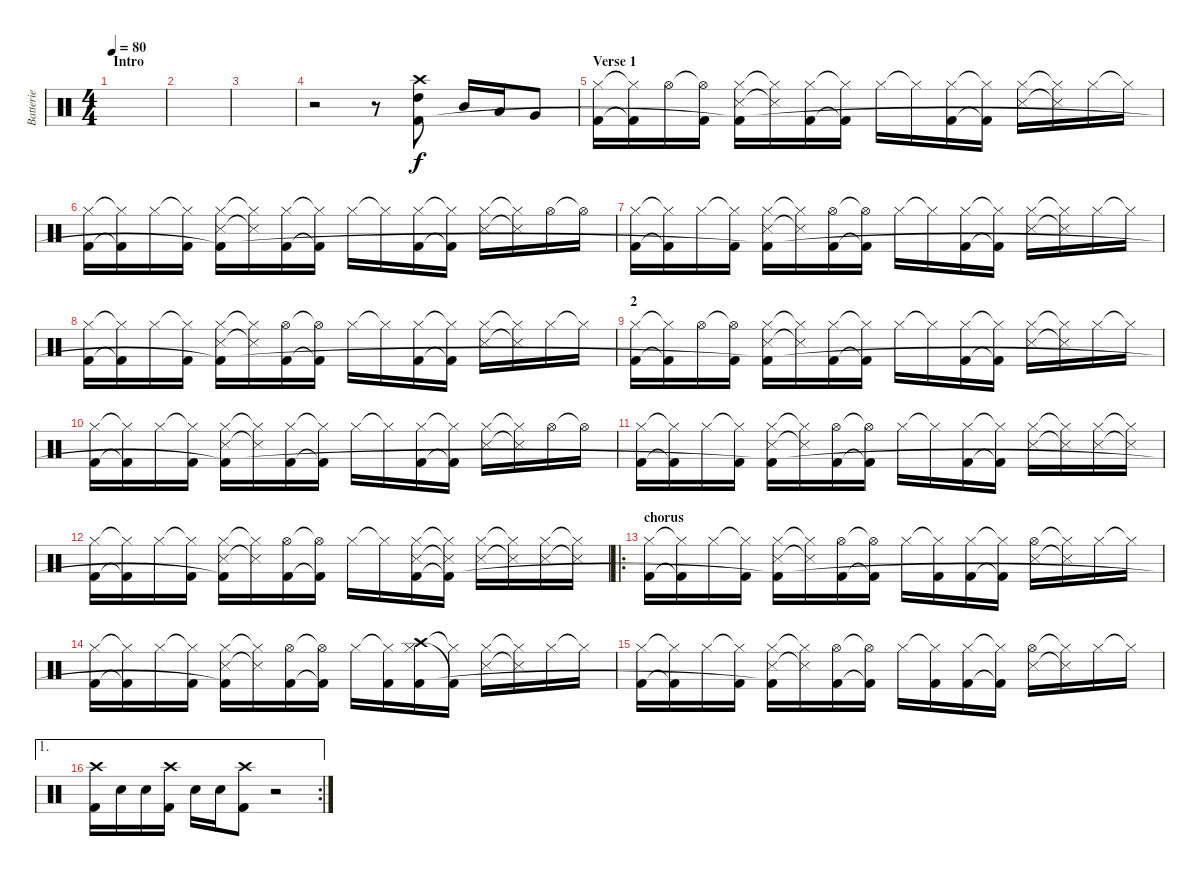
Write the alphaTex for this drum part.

\track ("Batterie" "Batterie") {instrument percussion}
\staff {score}
\articulation defaults
\ts (4 4)
\section ("" "Intro")
\tempo 80
\clef neutral
\ks c
|
|
|
r.2 r.8 ("Crash high (hit)" "High Tom (hit)" "Kick (hit) 2").8 "Mid Tom (hit)".16 "Low Tom (hit)".16 "Very Low Tom (hit)".8 |
\section ("" "Verse 1")
("Hi-Hat (closed)" "Kick (hit) 2").16 ("Hi-Hat (closed)"{t} "Kick (hit) 2"{t}).16 "Hi-Hat (open)".16 ("Hi-Hat (open)"{t} "Kick (hit) 2").16 ("Hi-Hat (closed)" "Snare (side stick) 3" "Kick (hit) 2"{t}).16 ("Hi-Hat (closed)"{t} "Snare (side stick) 3"{t}).16 ("Hi-Hat (closed)" "Kick (hit) 2").16 ("Hi-Hat (closed)"{t} "Kick (hit) 2"{t}).16 "Hi-Hat (closed)".16 "Hi-Hat (closed)"{t}.16 ("Hi-Hat (closed)" "Kick (hit) 2").16 ("Hi-Hat (closed)"{t} "Kick (hit) 2"{t}).16 ("Hi-Hat (closed)" "Snare (side stick) 3").16 ("Hi-Hat (closed)"{t} "Snare (side stick) 3"{t}).16 "Hi-Hat (closed)".16 "Hi-Hat (closed)"{t}.16 |
("Hi-Hat (closed)" "Kick (hit) 2").16 ("Hi-Hat (closed)"{t} "Kick (hit) 2"{t}).16 "Hi-Hat (closed)".16 ("Hi-Hat (closed)"{t} "Kick (hit) 2").16 ("Hi-Hat (closed)" "Snare (side stick) 3" "Kick (hit) 2"{t}).16 ("Hi-Hat (closed)"{t} "Snare (side stick) 3"{t}).16 ("Hi-Hat (closed)" "Kick (hit) 2").16 ("Hi-Hat (closed)"{t} "Kick (hit) 2"{t}).16 "Hi-Hat (closed)".16 "Hi-Hat (closed)"{t}.16 ("Hi-Hat (closed)" "Kick (hit) 2").16 ("Hi-Hat (closed)"{t} "Kick (hit) 2"{t}).16 ("Hi-Hat (closed)" "Snare (side stick) 3").16 ("Hi-Hat (closed)"{t} "Snare (side stick) 3"{t}).16 "Hi-Hat (open)".16 "Hi-Hat (open)"{t}.16 |
("Hi-Hat (closed)" "Kick (hit) 2").16 ("Hi-Hat (closed)"{t} "Kick (hit) 2"{t}).16 "Hi-Hat (closed)".16 ("Hi-Hat (closed)"{t} "Kick (hit) 2").16 ("Hi-Hat (closed)" "Snare (side stick) 3" "Kick (hit) 2"{t}).16 ("Hi-Hat (closed)"{t} "Snare (side stick) 3"{t}).16 ("Hi-Hat (open)" "Kick (hit) 2").16 ("Hi-Hat (open)"{t} "Kick (hit) 2"{t}).16 "Hi-Hat (closed)".16 "Hi-Hat (closed)"{t}.16 ("Hi-Hat (closed)" "Kick (hit) 2").16 ("Hi-Hat (closed)"{t} "Kick (hit) 2"{t}).16 ("Hi-Hat (closed)" "Snare (side stick) 3").16 ("Hi-Hat (closed)"{t} "Snare (side stick) 3"{t}).16 "Hi-Hat (closed)".16 "Hi-Hat (closed)"{t}.16 |
("Hi-Hat (closed)" "Kick (hit) 2").16 ("Hi-Hat (closed)"{t} "Kick (hit) 2"{t}).16 "Hi-Hat (closed)".16 ("Hi-Hat (closed)"{t} "Kick (hit) 2").16 ("Hi-Hat (closed)" "Snare (side stick) 3" "Kick (hit) 2"{t}).16 ("Hi-Hat (closed)"{t} "Snare (side stick) 3"{t}).16 ("Hi-Hat (open)" "Kick (hit) 2").16 ("Hi-Hat (open)"{t} "Kick (hit) 2"{t}).16 "Hi-Hat (closed)".16 "Hi-Hat (closed)"{t}.16 ("Hi-Hat (closed)" "Kick (hit) 2").16 ("Hi-Hat (closed)"{t} "Kick (hit) 2"{t}).16 ("Hi-Hat (closed)" "Snare (side stick) 3").16 ("Hi-Hat (closed)"{t} "Snare (side stick) 3"{t}).16 "Hi-Hat (closed)".16 "Hi-Hat (closed)"{t}.16 |
\section ("" "2")
("Hi-Hat (closed)" "Kick (hit) 2").16 ("Hi-Hat (closed)"{t} "Kick (hit) 2"{t}).16 "Hi-Hat (open)".16 ("Hi-Hat (open)"{t} "Kick (hit) 2").16 ("Hi-Hat (closed)" "Snare (side stick) 3" "Kick (hit) 2"{t}).16 ("Hi-Hat (closed)"{t} "Snare (side stick) 3"{t}).16 ("Hi-Hat (closed)" "Kick (hit) 2").16 ("Hi-Hat (closed)"{t} "Kick (hit) 2"{t}).16 "Hi-Hat (closed)".16 "Hi-Hat (closed)"{t}.16 ("Hi-Hat (closed)" "Kick (hit) 2").16 ("Hi-Hat (closed)"{t} "Kick (hit) 2"{t}).16 ("Hi-Hat (closed)" "Snare (side stick) 3").16 ("Hi-Hat (closed)"{t} "Snare (side stick) 3"{t}).16 "Hi-Hat (closed)".16 "Hi-Hat (closed)"{t}.16 |
("Hi-Hat (closed)" "Kick (hit) 2").16 ("Hi-Hat (closed)"{t} "Kick (hit) 2"{t}).16 "Hi-Hat (closed)".16 ("Hi-Hat (closed)"{t} "Kick (hit) 2").16 ("Hi-Hat (closed)" "Snare (side stick) 3" "Kick (hit) 2"{t}).16 ("Hi-Hat (closed)"{t} "Snare (side stick) 3"{t}).16 ("Hi-Hat (closed)" "Kick (hit) 2").16 ("Hi-Hat (closed)"{t} "Kick (hit) 2"{t}).16 "Hi-Hat (closed)".16 "Hi-Hat (closed)"{t}.16 ("Hi-Hat (closed)" "Kick (hit) 2").16 ("Hi-Hat (closed)"{t} "Kick (hit) 2"{t}).16 ("Hi-Hat (closed)" "Snare (side stick) 3").16 ("Hi-Hat (closed)"{t} "Snare (side stick) 3"{t}).16 "Hi-Hat (open)".16 "Hi-Hat (open)"{t}.16 |
("Hi-Hat (closed)" "Kick (hit) 2").16 ("Hi-Hat (closed)"{t} "Kick (hit) 2"{t}).16 "Hi-Hat (closed)".16 ("Hi-Hat (closed)"{t} "Kick (hit) 2").16 ("Hi-Hat (closed)" "Snare (side stick) 3" "Kick (hit) 2"{t}).16 ("Hi-Hat (closed)"{t} "Snare (side stick) 3"{t}).16 ("Hi-Hat (open)" "Kick (hit) 2").16 ("Hi-Hat (open)"{t} "Kick (hit) 2"{t}).16 "Hi-Hat (closed)".16 "Hi-Hat (closed)"{t}.16 ("Hi-Hat (closed)" "Kick (hit) 2").16 ("Hi-Hat (closed)"{t} "Kick (hit) 2"{t}).16 ("Hi-Hat (closed)" "Snare (side stick) 3").16 ("Hi-Hat (closed)"{t} "Snare (side stick) 3"{t}).16 ("Hi-Hat (closed)" "Snare (side stick) 3").16 ("Hi-Hat (closed)"{t} "Snare (side stick) 3"{t}).16 |
("Hi-Hat (closed)" "Kick (hit) 2").16 ("Hi-Hat (closed)"{t} "Kick (hit) 2"{t}).16 "Hi-Hat (closed)".16 ("Hi-Hat (closed)"{t} "Kick (hit) 2").16 ("Hi-Hat (closed)" "Snare (side stick) 3" "Kick (hit) 2"{t}).16 ("Hi-Hat (closed)"{t} "Snare (side stick) 3"{t}).16 ("Hi-Hat (open)" "Kick (hit) 2").16 ("Hi-Hat (open)"{t} "Kick (hit) 2"{t}).16 "Hi-Hat (closed)".16 "Hi-Hat (closed)"{t}.16 ("Hi-Hat (closed)" "Snare (side stick) 3" "Kick (hit) 2").16 ("Hi-Hat (closed)"{t} "Snare (side stick) 3"{t} "Kick (hit) 2"{t}).16 ("Hi-Hat (closed)" "Snare (side stick) 3").16 ("Hi-Hat (closed)"{t} "Snare (side stick) 3"{t}).16 ("Hi-Hat (closed)" "Snare (side stick) 3").16 ("Hi-Hat (closed)"{t} "Snare (side stick) 3"{t}).16 |
\ro
\section ("" "chorus")
("Hi-Hat (closed)" "Kick (hit) 2").16 ("Hi-Hat (closed)"{t} "Kick (hit) 2"{t}).16 "Hi-Hat (closed)".16 ("Hi-Hat (closed)"{t} "Kick (hit) 2").16 ("Hi-Hat (closed)" "Snare (side stick) 3" "Kick (hit) 2"{t}).16 ("Hi-Hat (closed)"{t} "Snare (side stick) 3"{t}).16 ("Hi-Hat (open)" "Kick (hit) 2").16 ("Hi-Hat (open)"{t} "Kick (hit) 2"{t}).16 "Hi-Hat (closed)".16 ("Hi-Hat (closed)"{t} "Kick (hit) 2").16 ("Hi-Hat (closed)" "Kick (hit) 2").16 ("Hi-Hat (closed)"{t} "Kick (hit) 2"{t}).16 ("Hi-Hat (open)" "Snare (side stick) 3").16 ("Hi-Hat (closed)"{t} "Snare (side stick) 3"{t}).16 "Hi-Hat (closed)".16 "Hi-Hat (closed)"{t}.16 |
("Hi-Hat (closed)" "Kick (hit) 2").16 ("Hi-Hat (closed)"{t} "Kick (hit) 2"{t}).16 "Hi-Hat (closed)".16 ("Hi-Hat (closed)"{t} "Kick (hit) 2").16 ("Hi-Hat (closed)" "Snare (side stick) 3" "Kick (hit) 2"{t}).16 ("Hi-Hat (closed)"{t} "Snare (side stick) 3"{t}).16 ("Hi-Hat (open)" "Kick (hit) 2").16 ("Hi-Hat (open)"{t} "Kick (hit) 2"{t}).16 "Hi-Hat (closed)".16 ("Hi-Hat (closed)"{t} "Kick (hit) 2").16 ("Crash high (hit)" "Hi-Hat (closed)" "Kick (hit) 2").16 ("Hi-Hat (closed)"{t} "Kick (hit) 2"{t}).16 ("Hi-Hat (closed)" "Snare (side stick) 3").16 ("Hi-Hat (closed)"{t} "Snare (side stick) 3"{t}).16 "Hi-Hat (closed)".16 "Hi-Hat (closed)"{t}.16 |
("Hi-Hat (closed)" "Kick (hit) 2").16 ("Hi-Hat (closed)"{t} "Kick (hit) 2"{t}).16 "Hi-Hat (closed)".16 ("Hi-Hat (closed)"{t} "Kick (hit) 2").16 ("Hi-Hat (closed)" "Snare (side stick) 3" "Kick (hit) 2"{t}).16 ("Hi-Hat (closed)"{t} "Snare (side stick) 3"{t}).16 ("Hi-Hat (open)" "Kick (hit) 2").16 ("Hi-Hat (open)"{t} "Kick (hit) 2"{t}).16 "Hi-Hat (closed)".16 ("Hi-Hat (closed)"{t} "Kick (hit) 2").16 ("Hi-Hat (closed)" "Kick (hit) 2").16 ("Hi-Hat (closed)"{t} "Kick (hit) 2"{t}).16 ("Hi-Hat (open)" "Snare (side stick) 3").16 ("Hi-Hat (closed)"{t} "Snare (side stick) 3"{t}).16 "Hi-Hat (closed)".16 "Hi-Hat (closed)"{t}.16 |
\ae 1
\rc 2
("Crash high (hit)" "Kick (hit) 2").16 "Snare (hit) 2".16 "Snare (hit) 2".16 ("Crash high (hit)" "Kick (hit) 2").16 "Snare (hit) 2".16 "Snare (hit) 2".16 ("Crash high (hit)" "Kick (hit) 2").8 r.2
